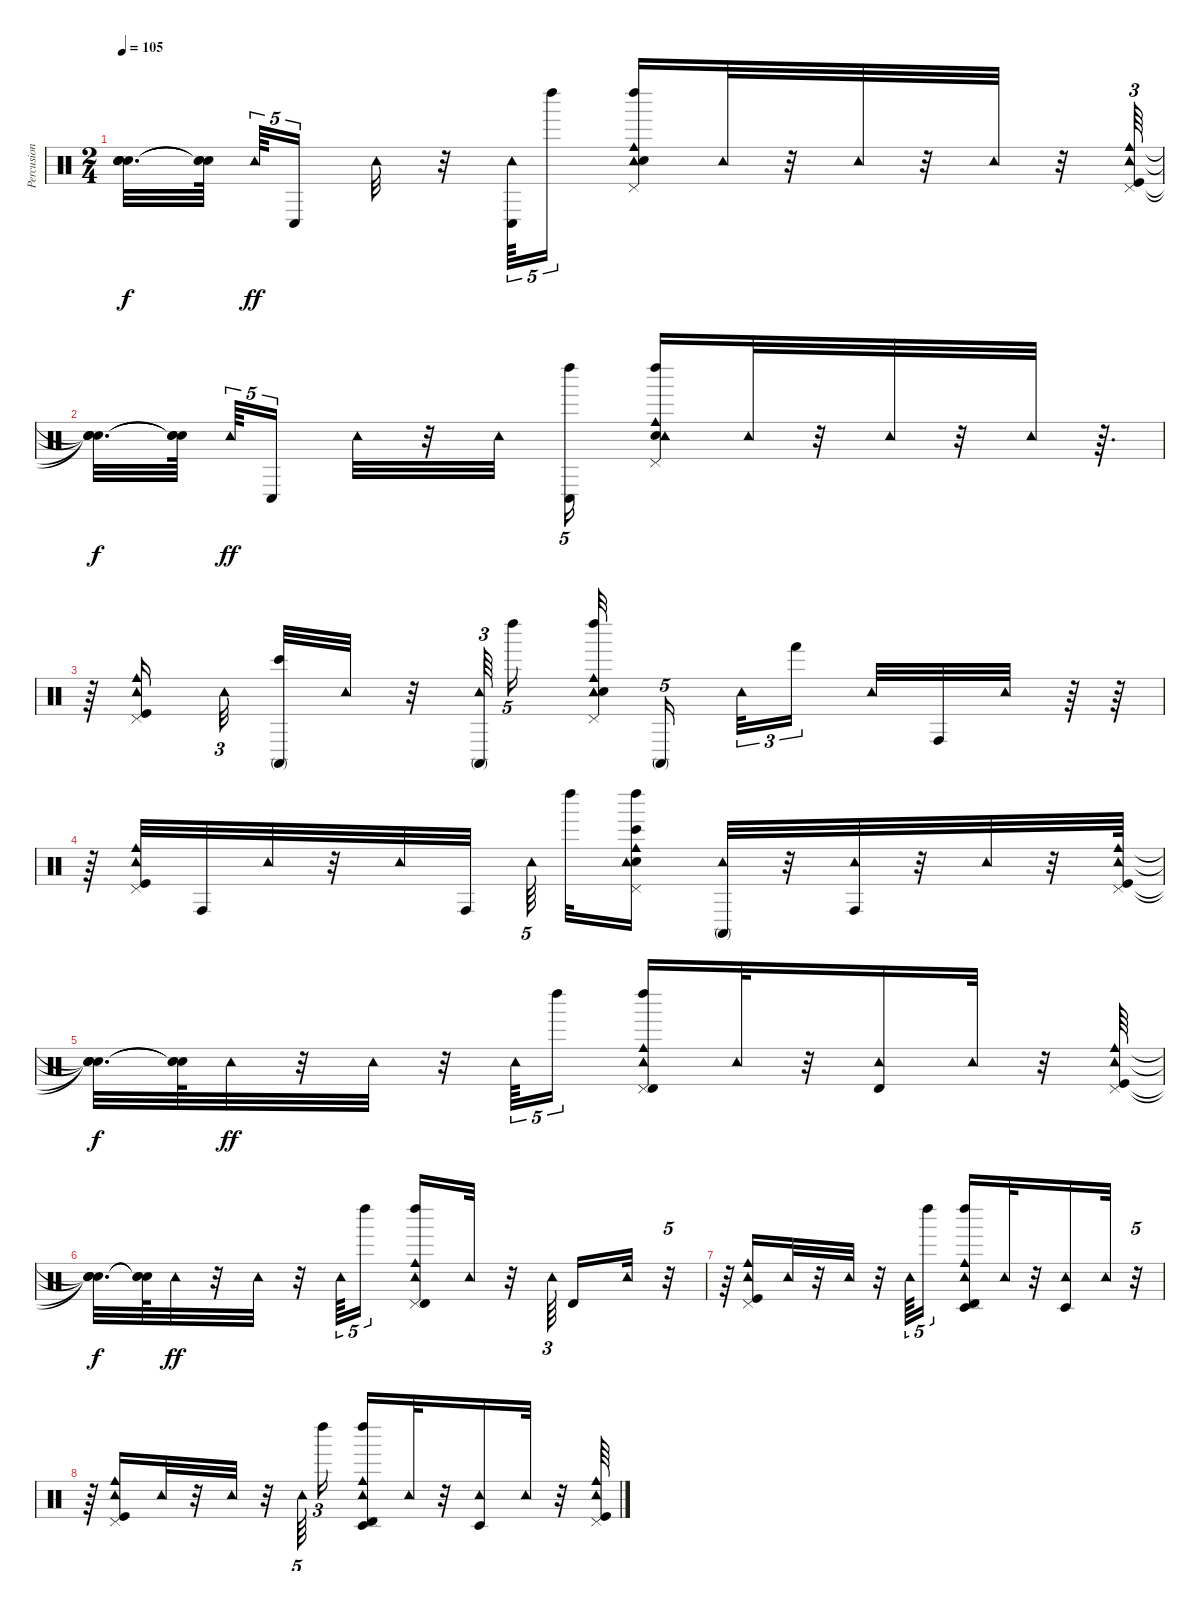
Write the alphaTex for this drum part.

\track ("Percusion" "Percusion") {instrument percussion}
\staff {score}
\articulation defaults
\ts (2 4)
\tempo 105
\clef neutral
\ks c
("Snare (hit)"{t} "Snare (hit)"{t} "Snare (hit)"{t} "Snare (hit)"{t}).32{d dy f} ("Snare (hit)"{t} "Snare (hit)"{t} "Snare (hit)"{t}).64{beam splitsecondary} "Tambourine (hit)".64{tu (5 4) dy ff} "Conga low (hit)".16{tu (5 4) beam splitsecondary} "Tambourine (hit)".32 r.32 ("Conga low (hit)" "Tambourine (hit)").64{tu (5 4)} "Left Maraca (hit)".16{tu (5 4)} ("Tambourine (hit)" "Electric Snare (hit)" "Cowbell medium (hit)" "Pedal Hi-Hat (hit)" "Left Maraca (hit)").16 "Tambourine (hit)".32 r.32 "Tambourine (hit)".32 r.32 "Tambourine (hit)".32 r.32 ("Pedal Hi-Hat (hit)" "Tambourine (hit)" "Cowbell medium (hit)" "Kick (hit)").64{tu (3 2)} |
("Snare (hit)"{t} "Snare (hit)"{t} "Snare (hit)"{t} "Snare (hit)"{t}).32{d dy f} ("Snare (hit)"{t} "Snare (hit)"{t} "Snare (hit)"{t}).64{beam splitsecondary} "Tambourine (hit)".64{tu (5 4) dy ff} "Conga low (hit)".16{tu (5 4) beam splitsecondary} "Tambourine (hit)".32 r.32 "Tambourine (hit)".32 ("Conga low (hit)" "Left Maraca (hit)").16{tu (5 4)} ("Pedal Hi-Hat (hit)" "Cowbell medium (hit)" "Electric Snare (hit)" "Tambourine (hit)" "Left Maraca (hit)").16 "Tambourine (hit)".32 r.32 "Tambourine (hit)".32 r.32 "Tambourine (hit)".32 r.64{d} |
r.64 ("Tambourine (hit)" "Kick (hit)" "Cowbell medium (hit)" "Pedal Hi-Hat (hit)").16{beam splitsecondary} "Tambourine (hit)".32{tu (3 2) beam splitsecondary} ("Bongo High (hit)" "Conga high (mute)").32 "Tambourine (hit)".32 r.32 ("Tambourine (hit)" "Conga high (mute)").64{tu (3 2)} "Left Maraca (hit)".16{tu (5 4)} ("Cowbell medium (hit)" "Tambourine (hit)" "Electric Snare (hit)" "Pedal Hi-Hat (hit)" "Left Maraca (hit)").32{beam splitsecondary} "Conga high (mute)".16{tu (5 4)} "Tambourine (hit)".32{tu (3 2)} "Hand (hit)".16{tu (3 2) beam splitsecondary} "Tambourine (hit)".32 "Conga high (hit)".32 "Tambourine (hit)".32 r.64 r.64 |
r.64 ("Pedal Hi-Hat (hit)" "Kick (hit)" "Tambourine (hit)" "Cowbell medium (hit)").32 "Conga high (hit)".32 "Tambourine (hit)".32 r.32 "Tambourine (hit)".32 "Conga high (hit)".32{beam splitsecondary} "Tambourine (hit)".64{tu (5 4) beam splitsecondary} "Left Maraca (hit)".32 ("Bongo High (hit)" "Pedal Hi-Hat (hit)" "Electric Snare (hit)" "Cowbell medium (hit)" "Tambourine (hit)" "Left Maraca (hit)").16 ("Tambourine (hit)" "Conga high (mute)").32 r.32 ("Tambourine (hit)" "Conga high (hit)").32 r.32 "Tambourine (hit)".32 r.32 ("Kick (hit)" "Tambourine (hit)" "Cowbell medium (hit)" "Pedal Hi-Hat (hit)").64 |
("Snare (hit)"{t} "Snare (hit)"{t} "Snare (hit)"{t} "Snare (hit)"{t}).32{d dy f} ("Snare (hit)"{t} "Snare (hit)"{t} "Snare (hit)"{t}).64 "Tambourine (hit)".32{dy ff} r.32 "Tambourine (hit)".32 r.32 "Tambourine (hit)".64{tu (5 4)} "Left Maraca (hit)".16{tu (5 4)} ("Cowbell medium (hit)" "Tambourine (hit)" "Pedal Hi-Hat (hit)" "Timbale high (hit)" "Left Maraca (hit)").16 "Tambourine (hit)".32 r.32 ("Tambourine (hit)" "Timbale high (hit)").16 "Tambourine (hit)".32 r.32 ("Pedal Hi-Hat (hit)" "Tambourine (hit)" "Cowbell medium (hit)" "Kick (hit)").64 |
("Snare (hit)"{t} "Snare (hit)"{t} "Snare (hit)"{t} "Snare (hit)"{t}).32{d dy f} ("Snare (hit)"{t} "Snare (hit)"{t} "Snare (hit)"{t}).64 "Tambourine (hit)".32{dy ff} r.32 "Tambourine (hit)".32 r.32 "Tambourine (hit)".64{tu (5 4)} "Left Maraca (hit)".16{tu (5 4)} ("Pedal Hi-Hat (hit)" "Tambourine (hit)" "Cowbell medium (hit)" "Left Maraca (hit)" "Timbale high (hit)").16 "Tambourine (hit)".32 r.32 "Tambourine (hit)".64{tu (3 2) beam splitsecondary} "Timbale high (hit)".16 "Tambourine (hit)".32 r.32{tu (5 4)} |
r.64 ("Cowbell medium (hit)" "Kick (hit)" "Tambourine (hit)" "Pedal Hi-Hat (hit)").16 "Tambourine (hit)".32 r.32 "Tambourine (hit)".32 r.32 "Tambourine (hit)".64{tu (5 4)} "Left Maraca (hit)".16{tu (5 4)} ("Pedal Hi-Hat (hit)" "Tambourine (hit)" "Cowbell medium (hit)" "Left Maraca (hit)" "Timbale high (hit)" "Timbale low (hit)").16 "Tambourine (hit)".32 r.32 ("Tambourine (hit)" "Timbale low (hit)").16 "Tambourine (hit)".32 r.32{tu (5 4)} |
r.64 ("Pedal Hi-Hat (hit)" "Cowbell medium (hit)" "Tambourine (hit)" "Kick (hit)").16 "Tambourine (hit)".32 r.32 "Tambourine (hit)".32 r.32 "Tambourine (hit)".64{tu (5 4)} "Left Maraca (hit)".16{tu (3 2)} ("Timbale high (hit)" "Timbale low (hit)" "Tambourine (hit)" "Cowbell medium (hit)" "Pedal Hi-Hat (hit)" "Left Maraca (hit)").16 "Tambourine (hit)".32 r.32 ("Tambourine (hit)" "Timbale low (hit)").16 "Tambourine (hit)".32 r.32 ("Kick (hit)" "Cowbell medium (hit)" "Tambourine (hit)" "Pedal Hi-Hat (hit)").64
